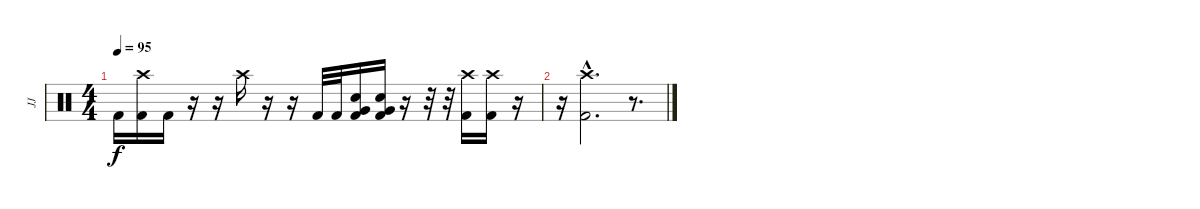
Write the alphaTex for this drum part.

\track ("JJ" "JJ") {instrument percussion}
\staff {score}
\articulation defaults
\ts (4 4)
\tempo 95
\clef neutral
\ks c "Kick (hit) 2".16{dy f}
("Crash high (hit)" "Kick (hit) 2").16 "Kick (hit) 2".16 r.16 r.16 "Crash high (hit)".16 r.16 r.16 "Kick (hit) 2".32 "Kick (hit) 2".32 ("Very Low Tom (hit)" "Electric Snare (hit)" "Kick (hit) 2").16 ("Very Low Tom (hit)" "Electric Snare (hit)" "Kick (hit) 2").16 r.16 r.32 r.32 ("Crash high (hit)" "Kick (hit) 2").16 ("Crash high (hit)" "Kick (hit) 2").16 r.16 |
r.16 ("Crash high (hit)"{hac} "Kick (hit) 2"{hac}).2{d} r.8{d}
